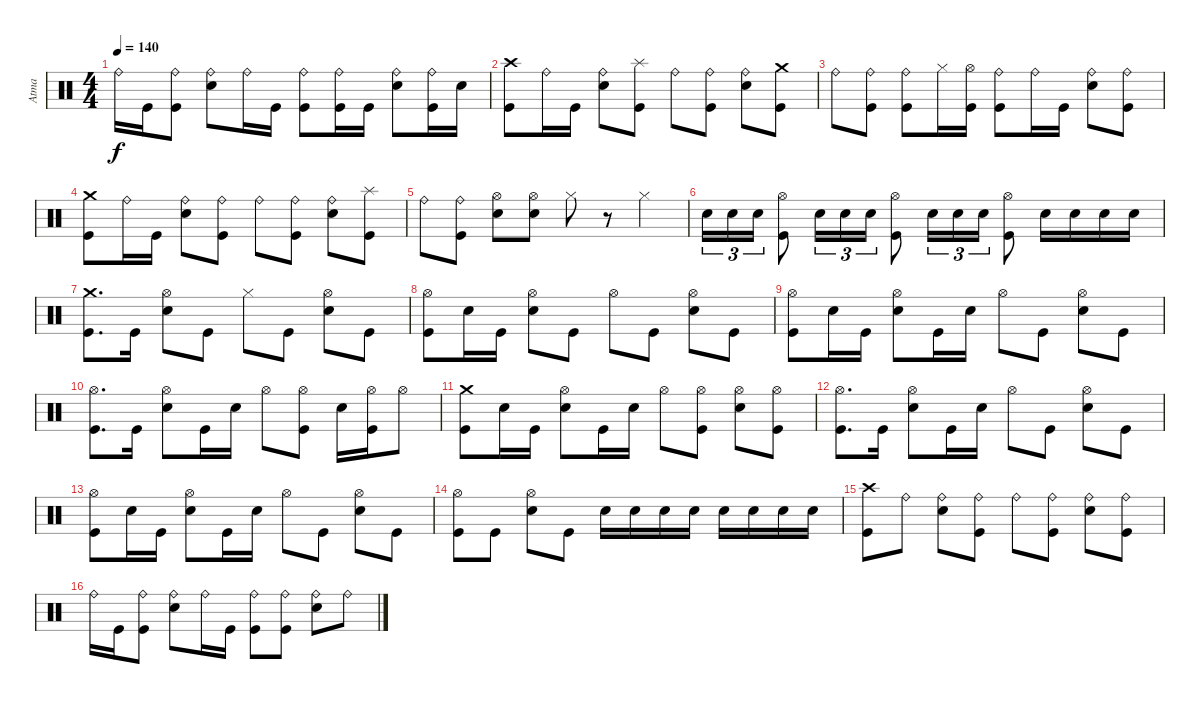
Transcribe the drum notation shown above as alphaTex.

\track ("Atma" "Atma") {instrument percussion}
\staff {score}
\articulation defaults
\ts (4 4)
\tempo 140
\clef neutral
\ks c "Ride (bell)".16{dy f} "Kick (hit)".16
("Kick (hit)" "Ride (bell)").8 ("Snare (hit) 2" "Ride (bell)").8 "Ride (bell)".16 "Kick (hit)".16 ("Kick (hit)" "Ride (bell)").8 ("Kick (hit)" "Ride (bell)").16 "Kick (hit)".16 ("Snare (hit) 2" "Ride (bell)").8 ("Kick (hit)" "Ride (bell)").16 "Snare (hit) 2".16 |
("Kick (hit)" "Crash high (hit)").8 "Ride (bell)".16 "Kick (hit)".16 ("Snare (hit) 2" "Ride (bell)").8 ("Kick (hit)" "Splash (hit)").8 "Ride (bell)".8 ("Kick (hit)" "Ride (bell)").8 ("Snare (hit) 2" "Ride (bell)").8 ("Kick (hit)" "Crash medium (hit)").8 |
"Ride (bell)".8 ("Kick (hit)" "Ride (bell)").8 ("Kick (hit)" "Ride (bell)").8 "Hi-Hat (closed)".16 ("Kick (hit)" "Hi-Hat (open)").16 ("Kick (hit)" "Ride (bell)").8 "Ride (bell)".16 "Kick (hit)".16 ("Snare (hit) 2" "Ride (bell)").8 ("Kick (hit)" "Ride (bell)").8 |
("Kick (hit)" "Crash medium (hit)").8 "Ride (bell)".16 "Kick (hit)".16 ("Snare (hit) 2" "Ride (bell)").8 ("Kick (hit)" "Ride (bell)").8 "Ride (bell)".8 ("Kick (hit)" "Ride (bell)").8 ("Snare (hit) 2" "Ride (bell)").8 ("Kick (hit)" "Splash (hit)").8 |
"Ride (bell)".8 ("Kick (hit)" "Ride (bell)").8 ("Snare (hit) 2" "Hi-Hat (open)").8 ("Snare (hit) 2" "Hi-Hat (open)").8 "Hi-Hat (closed)".8 r.8 "Hi-Hat (closed)".4 |
"Snare (hit) 2".16{tu (3 2)} "Snare (hit) 2".16{tu (3 2)} "Snare (hit) 2".16{tu (3 2)} ("Kick (hit)" "Hi-Hat (open)").8 "Snare (hit) 2".16{tu (3 2)} "Snare (hit) 2".16{tu (3 2)} "Snare (hit) 2".16{tu (3 2)} ("Kick (hit)" "Hi-Hat (open)").8 "Snare (hit) 2".16{tu (3 2)} "Snare (hit) 2".16{tu (3 2)} "Snare (hit) 2".16{tu (3 2)} ("Kick (hit)" "Hi-Hat (open)").8 "Snare (hit) 2".16 "Snare (hit) 2".16 "Snare (hit) 2".16 "Snare (hit) 2".16 |
("Kick (hit)" "Crash medium (hit)").8{d} "Kick (hit)".16 ("Snare (hit) 2" "Hi-Hat (open)").8 "Kick (hit)".8 "Hi-Hat (closed)".8 "Kick (hit)".8 ("Snare (hit) 2" "Hi-Hat (open)").8 "Kick (hit)".8 |
("Kick (hit)" "Hi-Hat (open)").8 "Snare (hit) 2".16 "Kick (hit)".16 ("Snare (hit) 2" "Hi-Hat (open)").8 "Kick (hit)".8 "Hi-Hat (open)".8 "Kick (hit)".8 ("Snare (hit) 2" "Hi-Hat (open)").8 "Kick (hit)".8 |
("Kick (hit)" "Hi-Hat (open)").8 "Snare (hit) 2".16 "Kick (hit)".16 ("Snare (hit) 2" "Hi-Hat (open)").8 "Kick (hit)".16 "Snare (hit) 2".16 "Hi-Hat (open)".8 "Kick (hit)".8 ("Snare (hit) 2" "Hi-Hat (open)").8 "Kick (hit)".8 |
("Kick (hit)" "Hi-Hat (open)").8{d} "Kick (hit)".16 ("Snare (hit) 2" "Hi-Hat (open)").8 "Kick (hit)".16 "Snare (hit) 2".16 "Hi-Hat (open)".8 ("Kick (hit)" "Hi-Hat (open)").8 "Snare (hit) 2".16 ("Kick (hit)" "Hi-Hat (open)").16 "Hi-Hat (open)".8 |
("Kick (hit)" "Crash medium (hit)").8 "Snare (hit) 2".16 "Kick (hit)".16 ("Snare (hit) 2" "Hi-Hat (open)").8 "Kick (hit)".16 "Snare (hit) 2".16 "Hi-Hat (open)".8 ("Kick (hit)" "Hi-Hat (open)").8 ("Snare (hit) 2" "Hi-Hat (open)").8 ("Kick (hit)" "Hi-Hat (open)").8 |
("Kick (hit)" "Hi-Hat (open)").8{d} "Kick (hit)".16 ("Snare (hit) 2" "Hi-Hat (open)").8 "Kick (hit)".16 "Snare (hit) 2".16 "Hi-Hat (open)".8 "Kick (hit)".8 ("Snare (hit) 2" "Hi-Hat (open)").8 "Kick (hit)".8 |
("Kick (hit)" "Hi-Hat (open)").8 "Snare (hit) 2".16 "Kick (hit)".16 ("Snare (hit) 2" "Hi-Hat (open)").8 "Kick (hit)".16 "Snare (hit) 2".16 "Hi-Hat (open)".8 "Kick (hit)".8 ("Snare (hit) 2" "Hi-Hat (open)").8 "Kick (hit)".8 |
("Kick (hit)" "Hi-Hat (open)").8 "Kick (hit)".8 ("Snare (hit) 2" "Hi-Hat (open)").8 "Kick (hit)".8 "Snare (hit) 2".16 "Snare (hit) 2".16 "Snare (hit) 2".16 "Snare (hit) 2".16 "Snare (hit) 2".16 "Snare (hit) 2".16 "Snare (hit) 2".16 "Snare (hit) 2".16 |
("Kick (hit)" "Crash high (hit)").8 "Ride (bell)".8 ("Snare (hit) 2" "Ride (bell)").8 ("Kick (hit)" "Ride (bell)").8 "Ride (bell)".8 ("Kick (hit)" "Ride (bell)").8 ("Snare (hit) 2" "Ride (bell)").8 ("Kick (hit)" "Ride (bell)").8 |
"Ride (bell)".16 "Kick (hit)".16 ("Kick (hit)" "Ride (bell)").8 ("Snare (hit) 2" "Ride (bell)").8 "Ride (bell)".16 "Kick (hit)".16 ("Kick (hit)" "Ride (bell)").8 ("Kick (hit)" "Ride (bell)").8 ("Snare (hit) 2" "Ride (bell)").8 "Ride (bell)".8
